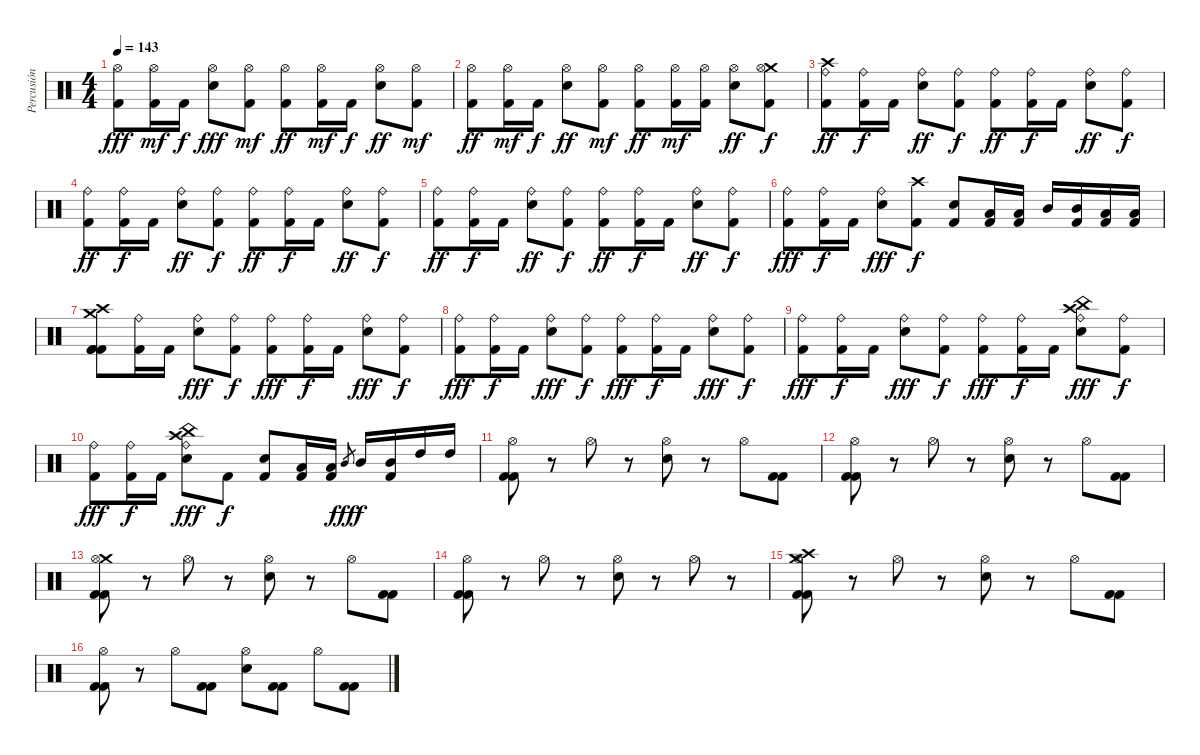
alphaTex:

\track ("Percusión" "Percusión") {instrument percussion}
\staff {score}
\articulation defaults
\ts (4 4)
\tempo 143
\clef neutral
\ks c
("Hi-Hat (open)" "Kick (hit) 2").8{dy fff} ("Hi-Hat (open)" "Kick (hit) 2").16{dy mf} "Kick (hit) 2".16{dy f} ("Hi-Hat (open)" "Electric Snare (hit)").8{dy fff} ("Hi-Hat (open)" "Kick (hit) 2").8{dy mf} ("Hi-Hat (open)" "Kick (hit) 2").8{dy ff} ("Hi-Hat (open)" "Kick (hit) 2").16{dy mf} "Kick (hit) 2".16{dy f} ("Hi-Hat (open)" "Electric Snare (hit)").8{dy ff} ("Hi-Hat (open)" "Kick (hit) 2").8{dy mf} |
("Hi-Hat (open)" "Kick (hit) 2").8{dy ff} ("Hi-Hat (open)" "Kick (hit) 2").16{dy mf} "Kick (hit) 2".16{dy f} ("Hi-Hat (open)" "Electric Snare (hit)").8{dy ff} ("Hi-Hat (open)" "Kick (hit) 2").8{dy mf} ("Hi-Hat (open)" "Kick (hit) 2").8{dy ff} ("Hi-Hat (open)" "Kick (hit) 2").16{dy mf} ("Hi-Hat (open)" "Kick (hit) 2").16 ("Hi-Hat (open)" "Electric Snare (hit)").8{dy ff} ("Crash medium (hit)" "Hi-Hat (open)" "Kick (hit) 2").8{dy f} |
("Crash high (hit)" "Ride (bell)" "Kick (hit) 2").8{dy ff} ("Ride (bell)" "Kick (hit) 2").16{dy f} "Kick (hit) 2".16 ("Ride (bell)" "Electric Snare (hit)").8{dy ff} ("Ride (bell)" "Kick (hit) 2").8{dy f} ("Ride (bell)" "Kick (hit) 2").8{dy ff} ("Ride (bell)" "Kick (hit) 2").16{dy f} "Kick (hit) 2".16 ("Ride (bell)" "Electric Snare (hit)").8{dy ff} ("Ride (bell)" "Kick (hit) 2").8{dy f} |
("Ride (bell)" "Kick (hit) 2").8{dy ff} ("Ride (bell)" "Kick (hit) 2").16{dy f} "Kick (hit) 2".16 ("Ride (bell)" "Electric Snare (hit)").8{dy ff} ("Ride (bell)" "Kick (hit) 2").8{dy f} ("Ride (bell)" "Kick (hit) 2").8{dy ff} ("Ride (bell)" "Kick (hit) 2").16{dy f} "Kick (hit) 2".16 ("Ride (bell)" "Electric Snare (hit)").8{dy ff} ("Ride (bell)" "Kick (hit) 2").8{dy f} |
("Ride (bell)" "Kick (hit) 2").8{dy ff} ("Ride (bell)" "Kick (hit) 2").16{dy f} "Kick (hit) 2".16 ("Ride (bell)" "Electric Snare (hit)").8{dy ff} ("Ride (bell)" "Kick (hit) 2").8{dy f} ("Ride (bell)" "Kick (hit) 2").8{dy ff} ("Ride (bell)" "Kick (hit) 2").16{dy f} "Kick (hit) 2".16 ("Ride (bell)" "Electric Snare (hit)").8{dy ff} ("Ride (bell)" "Kick (hit) 2").8{dy f} |
("Ride (bell)" "Kick (hit) 2").8{dy fff} ("Ride (bell)" "Kick (hit) 2").16{dy f} "Kick (hit) 2".16 ("Ride (bell)" "Electric Snare (hit)").8{dy fff} ("Crash high (hit)" "Kick (hit) 2").8{dy f} ("Electric Snare (hit)" "Kick (hit) 2").8 ("Low Tom (hit)" "Kick (hit) 2").16 ("Low Tom (hit)" "Kick (hit) 2").16 "Mid Tom (hit)".16 ("Mid Tom (hit)" "Kick (hit) 2").16 ("Low Tom (hit)" "Kick (hit) 2").16 ("Low Tom (hit)" "Kick (hit) 2").16 |
("Crash high (hit)" "Crash medium (hit)" "Kick (hit) 2" "Kick (hit) 2" "Kick (hit) 2").8 ("Ride (bell)" "Kick (hit) 2").16 "Kick (hit) 2".16 ("Ride (bell)" "Electric Snare (hit)").8{dy fff} ("Ride (bell)" "Kick (hit) 2").8{dy f} ("Ride (bell)" "Kick (hit) 2").8{dy fff} ("Ride (bell)" "Kick (hit) 2").16{dy f} "Kick (hit) 2".16 ("Ride (bell)" "Electric Snare (hit)").8{dy fff} ("Ride (bell)" "Kick (hit) 2").8{dy f} |
("Ride (bell)" "Kick (hit) 2").8{dy fff} ("Ride (bell)" "Kick (hit) 2").16{dy f} "Kick (hit) 2".16 ("Ride (bell)" "Electric Snare (hit)").8{dy fff} ("Ride (bell)" "Kick (hit) 2").8{dy f} ("Ride (bell)" "Kick (hit) 2").8{dy fff} ("Ride (bell)" "Kick (hit) 2").16{dy f} "Kick (hit) 2".16 ("Ride (bell)" "Electric Snare (hit)").8{dy fff} ("Ride (bell)" "Kick (hit) 2").8{dy f} |
("Ride (bell)" "Kick (hit) 2").8{dy fff} ("Ride (bell)" "Kick (hit) 2").16{dy f} "Kick (hit) 2".16 ("Ride (bell)" "Electric Snare (hit)").8{dy fff} ("Ride (bell)" "Kick (hit) 2").8{dy f} ("Ride (bell)" "Kick (hit) 2").8{dy fff} ("Ride (bell)" "Kick (hit) 2").16{dy f} "Kick (hit) 2".16 ("China (hit)" "Crash high (hit)" "Ride (bell)" "Electric Snare (hit)").8{dy fff} ("Ride (bell)" "Kick (hit) 2").8{dy f} |
("Ride (bell)" "Kick (hit) 2").8{dy fff} ("Ride (bell)" "Kick (hit) 2").16{dy f} "Kick (hit) 2".16 ("China (hit)" "Crash high (hit)" "Ride (bell)" "Electric Snare (hit)").8{dy fff} "Kick (hit) 2".8{dy f} ("Electric Snare (hit)" "Kick (hit) 2").8 ("Low Tom (hit)" "Kick (hit) 2").16 ("Low Tom (hit)" "Kick (hit) 2").16 "Mid Tom (hit)".8{gr dy fff} "Mid Tom (hit)".16{dy f} ("Mid Tom (hit)" "Kick (hit) 2").16 "High Tom (hit)".16 "High Tom (hit)".16 |
("Hi-Hat (open)" "Kick (hit) 2" "Kick (hit) 2").8 r.8 "Hi-Hat (open)".8 r.8 ("Hi-Hat (open)" "Electric Snare (hit)").8 r.8 "Hi-Hat (open)".8 ("Kick (hit) 2" "Kick (hit) 2").8 |
("Hi-Hat (open)" "Kick (hit) 2" "Kick (hit) 2").8 r.8 "Hi-Hat (open)".8 r.8 ("Hi-Hat (open)" "Electric Snare (hit)").8 r.8 "Hi-Hat (open)".8 ("Kick (hit) 2" "Kick (hit) 2").8 |
("Crash medium (hit)" "Hi-Hat (open)" "Kick (hit) 2" "Kick (hit) 2").8 r.8 "Hi-Hat (open)".8 r.8 ("Hi-Hat (open)" "Electric Snare (hit)").8 r.8 "Hi-Hat (open)".8 ("Kick (hit) 2" "Kick (hit) 2").8 |
("Hi-Hat (open)" "Kick (hit) 2" "Kick (hit) 2").8 r.8 "Hi-Hat (open)".8 r.8 ("Hi-Hat (open)" "Electric Snare (hit)").8 r.8 "Hi-Hat (open)".8 r.8 |
("Crash high (hit)" "Crash medium (hit)" "Hi-Hat (open)" "Kick (hit) 2" "Kick (hit) 2").8 r.8 "Hi-Hat (open)".8 r.8 ("Hi-Hat (open)" "Electric Snare (hit)").8 r.8 "Hi-Hat (open)".8 ("Kick (hit) 2" "Kick (hit) 2").8 |
("Hi-Hat (open)" "Kick (hit) 2" "Kick (hit) 2").8 r.8 "Hi-Hat (open)".8 ("Kick (hit) 2" "Kick (hit) 2").8 ("Hi-Hat (open)" "Electric Snare (hit)").8 ("Kick (hit) 2" "Kick (hit) 2").8 "Hi-Hat (open)".8 ("Kick (hit) 2" "Kick (hit) 2").8
